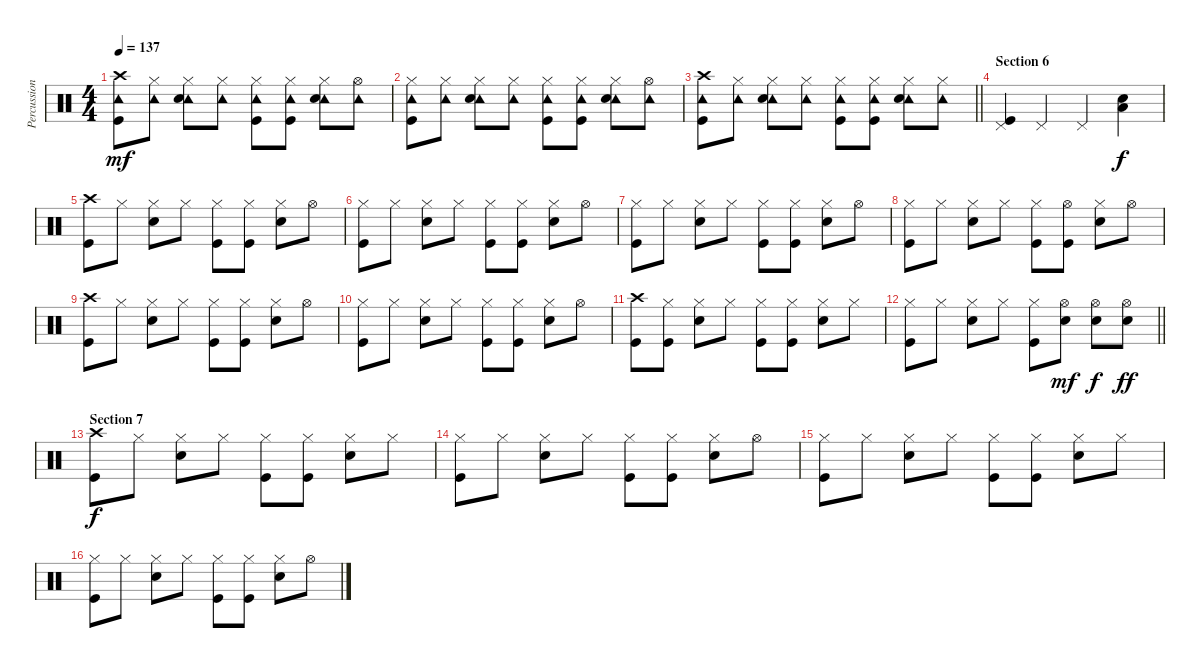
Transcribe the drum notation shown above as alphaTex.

\track ("Percussion" "Percussion") {instrument percussion}
\staff {score}
\articulation defaults
\ts (4 4)
\tempo 137
\clef neutral
\ks c
("Tambourine (hit)" "Crash high (hit)" "Kick (hit)").8{dy mf} ("Tambourine (hit)" "Hi-Hat (closed)").8 ("Tambourine (hit)" "Hi-Hat (closed)" "Snare (hit) 2").8 ("Tambourine (hit)" "Hi-Hat (closed)").8 ("Tambourine (hit)" "Hi-Hat (closed)" "Kick (hit)").8 ("Tambourine (hit)" "Hi-Hat (closed)" "Kick (hit)").8 ("Tambourine (hit)" "Hi-Hat (closed)" "Snare (hit) 2").8 ("Tambourine (hit)" "Hi-Hat (open)").8 |
("Tambourine (hit)" "Hi-Hat (closed)" "Kick (hit)").8 ("Tambourine (hit)" "Hi-Hat (closed)").8 ("Tambourine (hit)" "Hi-Hat (closed)" "Snare (hit) 2").8 ("Tambourine (hit)" "Hi-Hat (closed)").8 ("Tambourine (hit)" "Hi-Hat (closed)" "Kick (hit)").8 ("Tambourine (hit)" "Hi-Hat (closed)" "Kick (hit)").8 ("Tambourine (hit)" "Hi-Hat (closed)" "Snare (hit) 2").8 ("Tambourine (hit)" "Hi-Hat (open)").8 |
\barLineRight lightlight
("Tambourine (hit)" "Crash high (hit)" "Kick (hit)").8 ("Tambourine (hit)" "Hi-Hat (closed)").8 ("Tambourine (hit)" "Hi-Hat (closed)" "Snare (hit) 2").8 ("Tambourine (hit)" "Hi-Hat (closed)").8 ("Tambourine (hit)" "Hi-Hat (closed)" "Kick (hit)").8 ("Tambourine (hit)" "Hi-Hat (closed)" "Kick (hit)").8 ("Tambourine (hit)" "Hi-Hat (closed)" "Snare (hit) 2").8 ("Tambourine (hit)" "Hi-Hat (closed)").8 |
\section ("" "Section 6")
("Pedal Hi-Hat (hit)" "Kick (hit)").4 "Pedal Hi-Hat (hit)".4 "Pedal Hi-Hat (hit)".4 ("Low Tom (hit)" "Snare (hit) 2").4{dy f} |
("Crash high (hit)" "Kick (hit)").8 "Hi-Hat (closed)".8 ("Hi-Hat (closed)" "Snare (hit) 2").8 "Hi-Hat (closed)".8 ("Hi-Hat (closed)" "Kick (hit)").8 ("Hi-Hat (closed)" "Kick (hit)").8 ("Hi-Hat (closed)" "Snare (hit) 2").8 "Hi-Hat (open)".8 |
("Hi-Hat (closed)" "Kick (hit)").8 "Hi-Hat (closed)".8 ("Hi-Hat (closed)" "Snare (hit) 2").8 "Hi-Hat (closed)".8 ("Hi-Hat (closed)" "Kick (hit)").8 ("Hi-Hat (closed)" "Kick (hit)").8 ("Hi-Hat (closed)" "Snare (hit) 2").8 "Hi-Hat (open)".8 |
("Hi-Hat (closed)" "Kick (hit)").8 "Hi-Hat (closed)".8 ("Hi-Hat (closed)" "Snare (hit) 2").8 "Hi-Hat (closed)".8 ("Hi-Hat (closed)" "Kick (hit)").8 ("Hi-Hat (closed)" "Kick (hit)").8 ("Hi-Hat (closed)" "Snare (hit) 2").8 "Hi-Hat (open)".8 |
("Hi-Hat (closed)" "Kick (hit)").8 "Hi-Hat (closed)".8 ("Hi-Hat (closed)" "Snare (hit) 2").8 "Hi-Hat (closed)".8 ("Hi-Hat (closed)" "Kick (hit)").8 ("Hi-Hat (open)" "Kick (hit)").8 ("Hi-Hat (closed)" "Snare (hit) 2").8 "Hi-Hat (open)".8 |
("Crash high (hit)" "Kick (hit)").8 "Hi-Hat (closed)".8 ("Hi-Hat (closed)" "Snare (hit) 2").8 "Hi-Hat (closed)".8 ("Hi-Hat (closed)" "Kick (hit)").8 ("Hi-Hat (closed)" "Kick (hit)").8 ("Hi-Hat (closed)" "Snare (hit) 2").8 "Hi-Hat (open)".8 |
("Hi-Hat (closed)" "Kick (hit)").8 "Hi-Hat (closed)".8 ("Hi-Hat (closed)" "Snare (hit) 2").8 "Hi-Hat (closed)".8 ("Hi-Hat (closed)" "Kick (hit)").8 ("Hi-Hat (closed)" "Kick (hit)").8 ("Hi-Hat (closed)" "Snare (hit) 2").8 "Hi-Hat (open)".8 |
("Crash high (hit)" "Kick (hit)").8 ("Hi-Hat (closed)" "Kick (hit)").8 ("Hi-Hat (closed)" "Snare (hit) 2").8 "Hi-Hat (closed)".8 ("Hi-Hat (closed)" "Kick (hit)").8 ("Hi-Hat (closed)" "Kick (hit)").8 ("Hi-Hat (closed)" "Snare (hit) 2").8 "Hi-Hat (closed)".8 |
\barLineRight lightlight
("Hi-Hat (closed)" "Kick (hit)").8 "Hi-Hat (closed)".8 ("Hi-Hat (closed)" "Snare (hit) 2").8 "Hi-Hat (closed)".8 ("Hi-Hat (closed)" "Kick (hit)").8 ("Hi-Hat (open)" "Snare (hit) 2").8{dy mf} ("Hi-Hat (open)" "Snare (hit) 2").8{dy f} ("Hi-Hat (open)" "Snare (hit) 2").8{dy ff} |
\section ("" "Section 7")
("Crash high (hit)" "Kick (hit)").8{dy f} "Hi-Hat (closed)".8 ("Hi-Hat (closed)" "Snare (hit) 2").8 "Hi-Hat (closed)".8 ("Hi-Hat (closed)" "Kick (hit)").8 ("Hi-Hat (closed)" "Kick (hit)").8 ("Hi-Hat (closed)" "Snare (hit) 2").8 "Hi-Hat (closed)".8 |
("Hi-Hat (closed)" "Kick (hit)").8 "Hi-Hat (closed)".8 ("Hi-Hat (closed)" "Snare (hit) 2").8 "Hi-Hat (closed)".8 ("Hi-Hat (closed)" "Kick (hit)").8 ("Hi-Hat (closed)" "Kick (hit)").8 ("Hi-Hat (closed)" "Snare (hit) 2").8 "Hi-Hat (open)".8 |
("Hi-Hat (closed)" "Kick (hit)").8 "Hi-Hat (closed)".8 ("Hi-Hat (closed)" "Snare (hit) 2").8 "Hi-Hat (closed)".8 ("Hi-Hat (closed)" "Kick (hit)").8 ("Hi-Hat (closed)" "Kick (hit)").8 ("Hi-Hat (closed)" "Snare (hit) 2").8 "Hi-Hat (closed)".8 |
("Hi-Hat (closed)" "Kick (hit)").8 "Hi-Hat (closed)".8 ("Hi-Hat (closed)" "Snare (hit) 2").8 "Hi-Hat (closed)".8 ("Hi-Hat (closed)" "Kick (hit)").8 ("Hi-Hat (closed)" "Kick (hit)").8 ("Hi-Hat (closed)" "Snare (hit) 2").8 "Hi-Hat (open)".8
